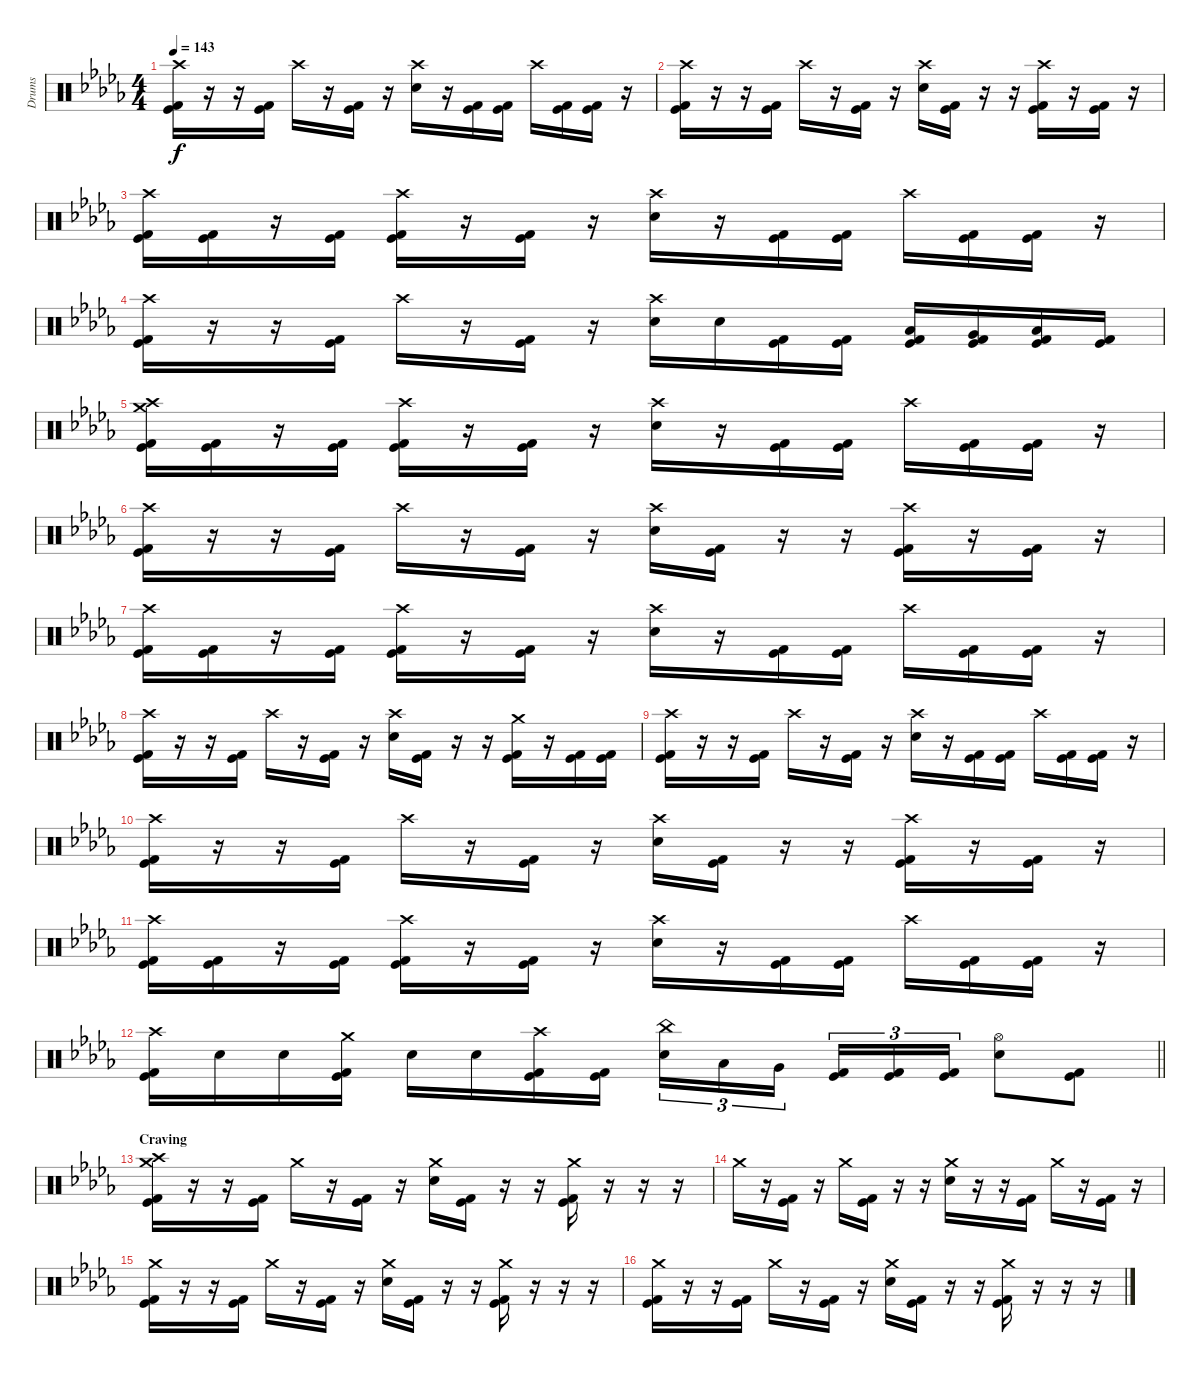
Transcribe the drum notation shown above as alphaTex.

\track ("Drums" "Drums") {instrument percussion}
\staff {score}
\articulation defaults
\ts (4 4)
\tempo 143
\clef neutral
\ks db
("Crash high (hit)" "Kick (hit)" "Kick (hit) 2").16{dy f} r.16 r.16 ("Kick (hit)" "Kick (hit) 2").16 "Crash high (hit)".16 r.16 ("Kick (hit)" "Kick (hit) 2").16 r.16 ("Crash high (hit)" "Electric Snare (hit)").16 r.16 ("Kick (hit)" "Kick (hit) 2").16 ("Kick (hit)" "Kick (hit) 2").16 "Crash high (hit)".16 ("Kick (hit)" "Kick (hit) 2").16 ("Kick (hit)" "Kick (hit) 2").16 r.16 |
("Crash high (hit)" "Kick (hit)" "Kick (hit) 2").16 r.16 r.16 ("Kick (hit)" "Kick (hit) 2").16 "Crash high (hit)".16 r.16 ("Kick (hit)" "Kick (hit) 2").16 r.16 ("Crash high (hit)" "Electric Snare (hit)").16 ("Kick (hit)" "Kick (hit) 2").16 r.16 r.16 ("Crash high (hit)" "Kick (hit)" "Kick (hit) 2").16 r.16 ("Kick (hit)" "Kick (hit) 2").16 r.16 |
("Crash high (hit)" "Kick (hit)" "Kick (hit) 2").16 ("Kick (hit)" "Kick (hit) 2").16 r.16 ("Kick (hit)" "Kick (hit) 2").16 ("Crash high (hit)" "Kick (hit)" "Kick (hit) 2").16 r.16 ("Kick (hit)" "Kick (hit) 2").16 r.16 ("Crash high (hit)" "Electric Snare (hit)").16 r.16 ("Kick (hit)" "Kick (hit) 2").16 ("Kick (hit)" "Kick (hit) 2").16 "Crash high (hit)".16 ("Kick (hit)" "Kick (hit) 2").16 ("Kick (hit)" "Kick (hit) 2").16 r.16 |
("Crash high (hit)" "Kick (hit)" "Kick (hit) 2").16 r.16 r.16 ("Kick (hit)" "Kick (hit) 2").16 "Crash high (hit)".16 r.16 ("Kick (hit)" "Kick (hit) 2").16 r.16 ("Crash high (hit)" "Electric Snare (hit)").16 "Electric Snare (hit)".16 ("Kick (hit)" "Kick (hit) 2").16 ("Kick (hit)" "Kick (hit) 2").16 ("Low Tom (hit)" "Kick (hit)" "Kick (hit) 2").16 ("Very Low Tom (hit)" "Kick (hit)" "Kick (hit) 2").16 ("Low Floor Tom (hit)" "Kick (hit)" "Kick (hit) 2").16 ("Kick (hit)" "Kick (hit) 2").16 |
("Crash medium (hit)" "Crash high (hit)" "Kick (hit)" "Kick (hit) 2").16 ("Kick (hit)" "Kick (hit) 2").16 r.16 ("Kick (hit)" "Kick (hit) 2").16 ("Crash high (hit)" "Kick (hit)" "Kick (hit) 2").16 r.16 ("Kick (hit)" "Kick (hit) 2").16 r.16 ("Crash high (hit)" "Electric Snare (hit)").16 r.16 ("Kick (hit)" "Kick (hit) 2").16 ("Kick (hit)" "Kick (hit) 2").16 "Crash high (hit)".16 ("Kick (hit)" "Kick (hit) 2").16 ("Kick (hit)" "Kick (hit) 2").16 r.16 |
("Crash high (hit)" "Kick (hit)" "Kick (hit) 2").16 r.16 r.16 ("Kick (hit)" "Kick (hit) 2").16 "Crash high (hit)".16 r.16 ("Kick (hit)" "Kick (hit) 2").16 r.16 ("Crash high (hit)" "Electric Snare (hit)").16 ("Kick (hit)" "Kick (hit) 2").16 r.16 r.16 ("Crash high (hit)" "Kick (hit)" "Kick (hit) 2").16 r.16 ("Kick (hit)" "Kick (hit) 2").16 r.16 |
("Crash high (hit)" "Kick (hit)" "Kick (hit) 2").16 ("Kick (hit)" "Kick (hit) 2").16 r.16 ("Kick (hit)" "Kick (hit) 2").16 ("Crash high (hit)" "Kick (hit)" "Kick (hit) 2").16 r.16 ("Kick (hit)" "Kick (hit) 2").16 r.16 ("Crash high (hit)" "Electric Snare (hit)").16 r.16 ("Kick (hit)" "Kick (hit) 2").16 ("Kick (hit)" "Kick (hit) 2").16 "Crash high (hit)".16 ("Kick (hit)" "Kick (hit) 2").16 ("Kick (hit)" "Kick (hit) 2").16 r.16 |
("Crash high (hit)" "Kick (hit)" "Kick (hit) 2").16 r.16 r.16 ("Kick (hit)" "Kick (hit) 2").16 "Crash high (hit)".16 r.16 ("Kick (hit)" "Kick (hit) 2").16 r.16 ("Crash high (hit)" "Electric Snare (hit)").16 ("Kick (hit)" "Kick (hit) 2").16 r.16 r.16 ("Crash medium (hit)" "Kick (hit)" "Kick (hit) 2").16 r.16 ("Kick (hit)" "Kick (hit) 2").16 ("Kick (hit)" "Kick (hit) 2").16 |
("Crash high (hit)" "Kick (hit)" "Kick (hit) 2").16 r.16 r.16 ("Kick (hit)" "Kick (hit) 2").16 "Crash high (hit)".16 r.16 ("Kick (hit)" "Kick (hit) 2").16 r.16 ("Crash high (hit)" "Electric Snare (hit)").16 r.16 ("Kick (hit)" "Kick (hit) 2").16 ("Kick (hit)" "Kick (hit) 2").16 "Crash high (hit)".16 ("Kick (hit)" "Kick (hit) 2").16 ("Kick (hit)" "Kick (hit) 2").16 r.16 |
("Crash high (hit)" "Kick (hit)" "Kick (hit) 2").16 r.16 r.16 ("Kick (hit)" "Kick (hit) 2").16 "Crash high (hit)".16 r.16 ("Kick (hit)" "Kick (hit) 2").16 r.16 ("Crash high (hit)" "Electric Snare (hit)").16 ("Kick (hit)" "Kick (hit) 2").16 r.16 r.16 ("Crash high (hit)" "Kick (hit)" "Kick (hit) 2").16 r.16 ("Kick (hit)" "Kick (hit) 2").16 r.16 |
("Crash high (hit)" "Kick (hit)" "Kick (hit) 2").16 ("Kick (hit)" "Kick (hit) 2").16 r.16 ("Kick (hit)" "Kick (hit) 2").16 ("Crash high (hit)" "Kick (hit)" "Kick (hit) 2").16 r.16 ("Kick (hit)" "Kick (hit) 2").16 r.16 ("Crash high (hit)" "Electric Snare (hit)").16 r.16 ("Kick (hit)" "Kick (hit) 2").16 ("Kick (hit)" "Kick (hit) 2").16 "Crash high (hit)".16 ("Kick (hit)" "Kick (hit) 2").16 ("Kick (hit)" "Kick (hit) 2").16 r.16 |
\barLineRight lightlight
("Crash high (hit)" "Kick (hit)" "Kick (hit) 2").16 "Electric Snare (hit)".16 "Electric Snare (hit)".16 ("Crash medium (hit)" "Kick (hit)" "Kick (hit) 2").16 "Electric Snare (hit)".16 "Electric Snare (hit)".16 ("Crash high (hit)" "Kick (hit)" "Kick (hit) 2").16 ("Kick (hit)" "Kick (hit) 2").16 ("China (hit)" "Electric Snare (hit)").16{tu (3 2)} "Low Tom (hit)".16{tu (3 2)} "Very Low Tom (hit)".16{tu (3 2) beam splitsecondary} ("Kick (hit)" "Kick (hit) 2").16{tu (3 2)} ("Kick (hit)" "Kick (hit) 2").16{tu (3 2)} ("Kick (hit)" "Kick (hit) 2").16{tu (3 2)} ("Hi-Hat (open)" "Electric Snare (hit)").8 ("Kick (hit)" "Kick (hit) 2").8 |
\section ("" "Craving")
("Crash medium (hit)" "Crash high (hit)" "Kick (hit)" "Kick (hit) 2").16 r.16 r.16 ("Kick (hit)" "Kick (hit) 2").16 "Crash medium (hit)".16 r.16 ("Kick (hit)" "Kick (hit) 2").16 r.16 ("Crash medium (hit)" "Electric Snare (hit)").16 ("Kick (hit)" "Kick (hit) 2").16 r.16 r.16 ("Crash medium (hit)" "Kick (hit)" "Kick (hit) 2").16 r.16 r.16 r.16 |
"Crash medium (hit)".16 r.16 ("Kick (hit)" "Kick (hit) 2").16 r.16 "Crash medium (hit)".16 ("Kick (hit)" "Kick (hit) 2").16 r.16 r.16 ("Crash medium (hit)" "Electric Snare (hit)").16 r.16 r.16 ("Kick (hit)" "Kick (hit) 2").16 "Crash medium (hit)".16 r.16 ("Kick (hit)" "Kick (hit) 2").16 r.16 |
("Crash medium (hit)" "Kick (hit)" "Kick (hit) 2").16 r.16 r.16 ("Kick (hit)" "Kick (hit) 2").16 "Crash medium (hit)".16 r.16 ("Kick (hit)" "Kick (hit) 2").16 r.16 ("Crash medium (hit)" "Electric Snare (hit)").16 ("Kick (hit)" "Kick (hit) 2").16 r.16 r.16 ("Crash medium (hit)" "Kick (hit)" "Kick (hit) 2").16 r.16 r.16 r.16 |
("Crash medium (hit)" "Kick (hit)" "Kick (hit) 2").16 r.16 r.16 ("Kick (hit)" "Kick (hit) 2").16 "Crash medium (hit)".16 r.16 ("Kick (hit)" "Kick (hit) 2").16 r.16 ("Crash medium (hit)" "Electric Snare (hit)").16 ("Kick (hit)" "Kick (hit) 2").16 r.16 r.16 ("Crash medium (hit)" "Kick (hit)" "Kick (hit) 2").16 r.16 r.16 r.16
